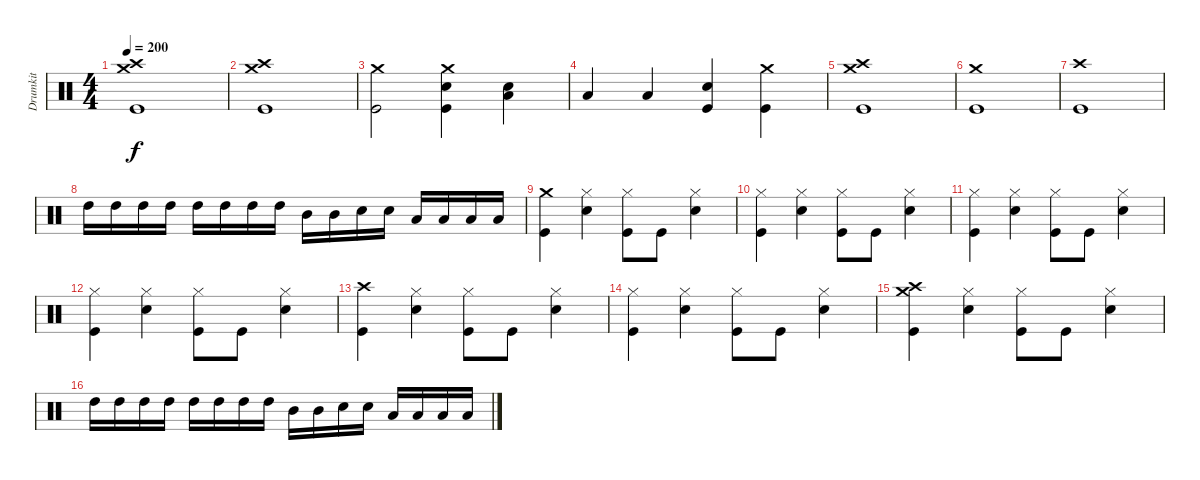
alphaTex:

\track ("Drumkit" "Drumkit") {instrument percussion}
\staff {score}
\articulation defaults
\ts (4 4)
\tempo 200
\clef neutral
\ks c
("Crash high (hit)" "Crash medium (hit)" "Kick (hit)").1{dy f} |
("Crash high (hit)" "Crash medium (hit)" "Kick (hit)").1 |
("Crash medium (hit)" "Kick (hit)").2 ("Crash medium (hit)" "Kick (hit)" "Snare (hit) 2").4 ("Low Floor Tom (hit)" "Snare (hit) 2").4 |
"Low Tom (hit)".4 "Low Floor Tom (hit)".4 ("Kick (hit)" "Snare (hit) 2").4 ("Kick (hit)" "Crash medium (hit)").4 |
("Crash medium (hit)" "Crash high (hit)" "Kick (hit)").1 |
("Crash medium (hit)" "Kick (hit)").1 |
("Crash high (hit)" "Kick (hit)").1 |
"High Tom (hit)".16 "High Tom (hit)".16 "High Tom (hit)".16 "High Tom (hit)".16 "High Tom (hit)".16 "High Tom (hit)".16 "High Tom (hit)".16 "High Tom (hit)".16 "Mid Tom (hit)".16 "Mid Tom (hit)".16 "Snare (hit) 2".16 "Snare (hit) 2".16 "Low Floor Tom (hit)".16 "Low Floor Tom (hit)".16 "Low Tom (hit)".16 "Low Tom (hit)".16 |
("Crash medium (hit)" "Kick (hit)").4 ("Hi-Hat (closed)" "Snare (hit) 2").4 ("Hi-Hat (closed)" "Kick (hit)").8 "Kick (hit)".8 ("Hi-Hat (closed)" "Snare (hit) 2").4 |
("Hi-Hat (closed)" "Kick (hit)").4 ("Hi-Hat (closed)" "Snare (hit) 2").4 ("Hi-Hat (closed)" "Kick (hit)").8 "Kick (hit)".8 ("Hi-Hat (closed)" "Snare (hit) 2").4 |
("Hi-Hat (closed)" "Kick (hit)").4 ("Hi-Hat (closed)" "Snare (hit) 2").4 ("Hi-Hat (closed)" "Kick (hit)").8 "Kick (hit)".8 ("Hi-Hat (closed)" "Snare (hit) 2").4 |
("Hi-Hat (closed)" "Kick (hit)").4 ("Hi-Hat (closed)" "Snare (hit) 2").4 ("Hi-Hat (closed)" "Kick (hit)").8 "Kick (hit)".8 ("Hi-Hat (closed)" "Snare (hit) 2").4 |
("Crash high (hit)" "Kick (hit)").4 ("Hi-Hat (closed)" "Snare (hit) 2").4 ("Hi-Hat (closed)" "Kick (hit)").8 "Kick (hit)".8 ("Hi-Hat (closed)" "Snare (hit) 2").4 |
("Hi-Hat (closed)" "Kick (hit)").4 ("Hi-Hat (closed)" "Snare (hit) 2").4 ("Hi-Hat (closed)" "Kick (hit)").8 "Kick (hit)".8 ("Hi-Hat (closed)" "Snare (hit) 2").4 |
("Crash high (hit)" "Crash medium (hit)" "Kick (hit)").4 ("Hi-Hat (closed)" "Snare (hit) 2").4 ("Hi-Hat (closed)" "Kick (hit)").8 "Kick (hit)".8 ("Hi-Hat (closed)" "Snare (hit) 2").4 |
"High Tom (hit)".16 "High Tom (hit)".16 "High Tom (hit)".16 "High Tom (hit)".16 "High Tom (hit)".16 "High Tom (hit)".16 "High Tom (hit)".16 "High Tom (hit)".16 "Mid Tom (hit)".16 "Mid Tom (hit)".16 "Snare (hit) 2".16 "Snare (hit) 2".16 "Low Floor Tom (hit)".16 "Low Floor Tom (hit)".16 "Low Tom (hit)".16 "Low Tom (hit)".16
